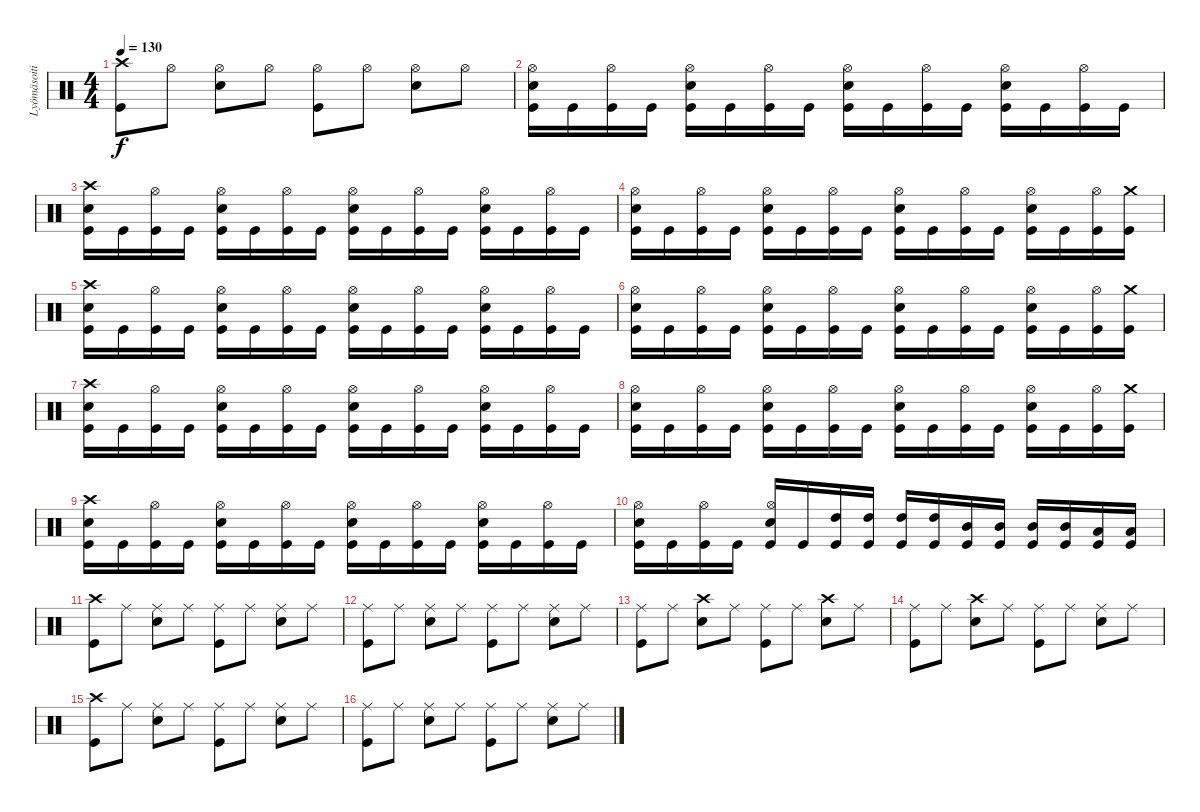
\track ("Lyömäsoitin" "Lyömäsoiti") {instrument percussion}
\staff {score}
\articulation defaults
\ts (4 4)
\tempo 130
\clef neutral
\ks c
("Crash high (hit)" "Kick (hit)").8{dy f} "Hi-Hat (open)".8 ("Hi-Hat (open)" "Snare (hit) 2").8 "Hi-Hat (open)".8 ("Hi-Hat (open)" "Kick (hit)").8 "Hi-Hat (open)".8 ("Hi-Hat (open)" "Snare (hit) 2").8 "Hi-Hat (open)".8 |
("Hi-Hat (open)" "Snare (hit) 2" "Kick (hit)").16 "Kick (hit)".16 ("Hi-Hat (open)" "Kick (hit)").16 "Kick (hit)".16 ("Hi-Hat (open)" "Snare (hit) 2" "Kick (hit)").16 "Kick (hit)".16 ("Hi-Hat (open)" "Kick (hit)").16 "Kick (hit)".16 ("Hi-Hat (open)" "Snare (hit) 2" "Kick (hit)").16 "Kick (hit)".16 ("Hi-Hat (open)" "Kick (hit)").16 "Kick (hit)".16 ("Hi-Hat (open)" "Snare (hit) 2" "Kick (hit)").16 "Kick (hit)".16 ("Hi-Hat (open)" "Kick (hit)").16 "Kick (hit)".16 |
("Crash high (hit)" "Snare (hit) 2" "Kick (hit)").16 "Kick (hit)".16 ("Hi-Hat (open)" "Kick (hit)").16 "Kick (hit)".16 ("Hi-Hat (open)" "Snare (hit) 2" "Kick (hit)").16 "Kick (hit)".16 ("Hi-Hat (open)" "Kick (hit)").16 "Kick (hit)".16 ("Hi-Hat (open)" "Snare (hit) 2" "Kick (hit)").16 "Kick (hit)".16 ("Hi-Hat (open)" "Kick (hit)").16 "Kick (hit)".16 ("Hi-Hat (open)" "Snare (hit) 2" "Kick (hit)").16 "Kick (hit)".16 ("Hi-Hat (open)" "Kick (hit)").16 "Kick (hit)".16 |
("Hi-Hat (open)" "Snare (hit) 2" "Kick (hit)").16 "Kick (hit)".16 ("Hi-Hat (open)" "Kick (hit)").16 "Kick (hit)".16 ("Hi-Hat (open)" "Snare (hit) 2" "Kick (hit)").16 "Kick (hit)".16 ("Hi-Hat (open)" "Kick (hit)").16 "Kick (hit)".16 ("Hi-Hat (open)" "Snare (hit) 2" "Kick (hit)").16 "Kick (hit)".16 ("Hi-Hat (open)" "Kick (hit)").16 "Kick (hit)".16 ("Hi-Hat (open)" "Snare (hit) 2" "Kick (hit)").16 "Kick (hit)".16 ("Hi-Hat (open)" "Kick (hit)").16 ("Crash medium (hit)" "Kick (hit)").16 |
("Crash high (hit)" "Snare (hit) 2" "Kick (hit)").16 "Kick (hit)".16 ("Hi-Hat (open)" "Kick (hit)").16 "Kick (hit)".16 ("Hi-Hat (open)" "Snare (hit) 2" "Kick (hit)").16 "Kick (hit)".16 ("Hi-Hat (open)" "Kick (hit)").16 "Kick (hit)".16 ("Hi-Hat (open)" "Snare (hit) 2" "Kick (hit)").16 "Kick (hit)".16 ("Hi-Hat (open)" "Kick (hit)").16 "Kick (hit)".16 ("Hi-Hat (open)" "Snare (hit) 2" "Kick (hit)").16 "Kick (hit)".16 ("Hi-Hat (open)" "Kick (hit)").16 "Kick (hit)".16 |
("Hi-Hat (open)" "Snare (hit) 2" "Kick (hit)").16 "Kick (hit)".16 ("Hi-Hat (open)" "Kick (hit)").16 "Kick (hit)".16 ("Hi-Hat (open)" "Snare (hit) 2" "Kick (hit)").16 "Kick (hit)".16 ("Hi-Hat (open)" "Kick (hit)").16 "Kick (hit)".16 ("Hi-Hat (open)" "Snare (hit) 2" "Kick (hit)").16 "Kick (hit)".16 ("Hi-Hat (open)" "Kick (hit)").16 "Kick (hit)".16 ("Hi-Hat (open)" "Snare (hit) 2" "Kick (hit)").16 "Kick (hit)".16 ("Hi-Hat (open)" "Kick (hit)").16 ("Crash medium (hit)" "Kick (hit)").16 |
("Crash high (hit)" "Snare (hit) 2" "Kick (hit)").16 "Kick (hit)".16 ("Hi-Hat (open)" "Kick (hit)").16 "Kick (hit)".16 ("Hi-Hat (open)" "Snare (hit) 2" "Kick (hit)").16 "Kick (hit)".16 ("Hi-Hat (open)" "Kick (hit)").16 "Kick (hit)".16 ("Hi-Hat (open)" "Snare (hit) 2" "Kick (hit)").16 "Kick (hit)".16 ("Hi-Hat (open)" "Kick (hit)").16 "Kick (hit)".16 ("Hi-Hat (open)" "Snare (hit) 2" "Kick (hit)").16 "Kick (hit)".16 ("Hi-Hat (open)" "Kick (hit)").16 "Kick (hit)".16 |
("Hi-Hat (open)" "Snare (hit) 2" "Kick (hit)").16 "Kick (hit)".16 ("Hi-Hat (open)" "Kick (hit)").16 "Kick (hit)".16 ("Hi-Hat (open)" "Snare (hit) 2" "Kick (hit)").16 "Kick (hit)".16 ("Hi-Hat (open)" "Kick (hit)").16 "Kick (hit)".16 ("Hi-Hat (open)" "Snare (hit) 2" "Kick (hit)").16 "Kick (hit)".16 ("Hi-Hat (open)" "Kick (hit)").16 "Kick (hit)".16 ("Hi-Hat (open)" "Snare (hit) 2" "Kick (hit)").16 "Kick (hit)".16 ("Hi-Hat (open)" "Kick (hit)").16 ("Crash medium (hit)" "Kick (hit)").16 |
("Crash high (hit)" "Snare (hit) 2" "Kick (hit)").16 "Kick (hit)".16 ("Hi-Hat (open)" "Kick (hit)").16 "Kick (hit)".16 ("Hi-Hat (open)" "Snare (hit) 2" "Kick (hit)").16 "Kick (hit)".16 ("Hi-Hat (open)" "Kick (hit)").16 "Kick (hit)".16 ("Hi-Hat (open)" "Snare (hit) 2" "Kick (hit)").16 "Kick (hit)".16 ("Hi-Hat (open)" "Kick (hit)").16 "Kick (hit)".16 ("Hi-Hat (open)" "Snare (hit) 2" "Kick (hit)").16 "Kick (hit)".16 ("Hi-Hat (open)" "Kick (hit)").16 "Kick (hit)".16 |
("Hi-Hat (open)" "Snare (hit) 2" "Kick (hit)").16 "Kick (hit)".16 ("Hi-Hat (open)" "Kick (hit)").16 "Kick (hit)".16 ("Hi-Hat (open)" "Snare (hit) 2" "Kick (hit)").16 "Kick (hit)".16 ("High Tom (hit)" "Kick (hit)").16 ("High Tom (hit)" "Kick (hit)").16 ("High Tom (hit)" "Kick (hit)").16 ("High Tom (hit)" "Kick (hit)").16 ("Mid Tom (hit)" "Kick (hit)").16 ("Mid Tom (hit)" "Kick (hit)").16 ("Mid Tom (hit)" "Kick (hit)").16 ("Mid Tom (hit)" "Kick (hit)").16 ("Low Tom (hit)" "Kick (hit)").16 ("Low Tom (hit)" "Kick (hit)").16 |
("Crash high (hit)" "Kick (hit)").8 "Ride (middle)".8 ("Ride (middle)" "Snare (hit) 2").8 "Ride (middle)".8 ("Ride (middle)" "Kick (hit)").8 "Ride (middle)".8 ("Ride (middle)" "Snare (hit) 2").8 "Ride (middle)".8 |
("Ride (middle)" "Kick (hit)").8 "Ride (middle)".8 ("Ride (middle)" "Snare (hit) 2").8 "Ride (middle)".8 ("Ride (middle)" "Kick (hit)").8 "Ride (middle)".8 ("Ride (middle)" "Snare (hit) 2").8 "Ride (middle)".8 |
("Ride (middle)" "Kick (hit)").8 "Ride (middle)".8 ("Crash high (hit)" "Snare (hit) 2").8 "Ride (middle)".8 ("Ride (middle)" "Kick (hit)").8 "Ride (middle)".8 ("Crash high (hit)" "Snare (hit) 2").8 "Ride (middle)".8 |
("Ride (middle)" "Kick (hit)").8 "Ride (middle)".8 ("Crash high (hit)" "Snare (hit) 2").8 "Ride (middle)".8 ("Ride (middle)" "Kick (hit)").8 "Ride (middle)".8 ("Ride (middle)" "Snare (hit) 2").8 "Ride (middle)".8 |
("Crash high (hit)" "Kick (hit)").8 "Ride (middle)".8 ("Ride (middle)" "Snare (hit) 2").8 "Ride (middle)".8 ("Ride (middle)" "Kick (hit)").8 "Ride (middle)".8 ("Ride (middle)" "Snare (hit) 2").8 "Ride (middle)".8 |
("Ride (middle)" "Kick (hit)").8 "Ride (middle)".8 ("Ride (middle)" "Snare (hit) 2").8 "Ride (middle)".8 ("Ride (middle)" "Kick (hit)").8 "Ride (middle)".8 ("Ride (middle)" "Snare (hit) 2").8 "Ride (middle)".8
